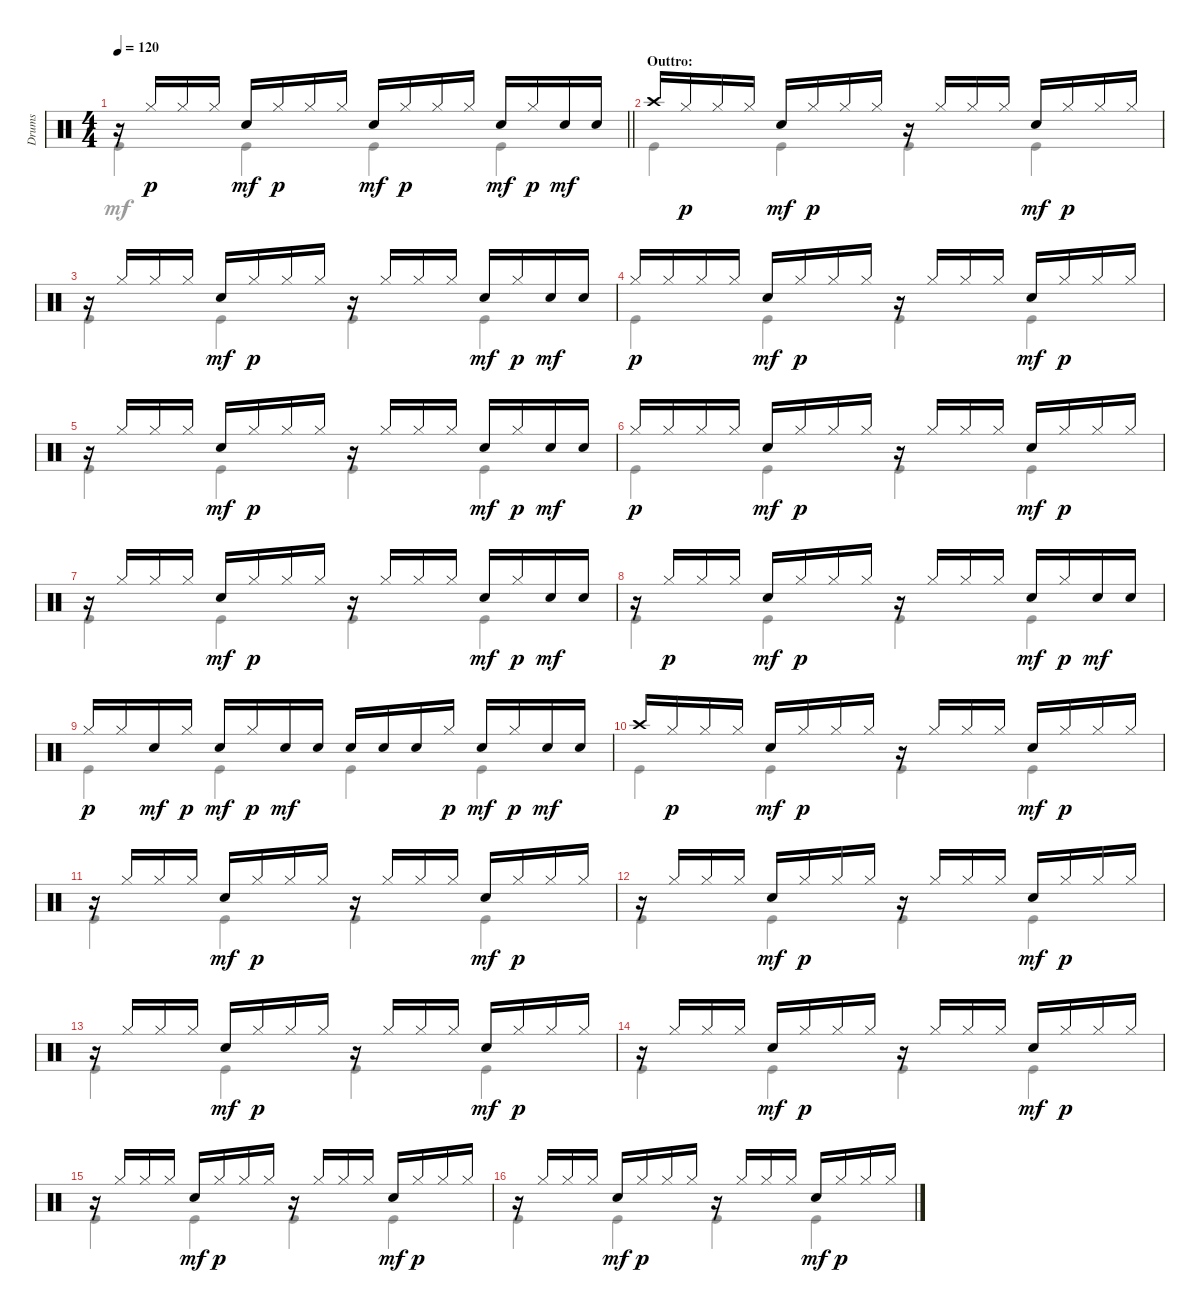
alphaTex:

\track ("Drums" "Drums") {instrument percussion}
\staff {score}
\articulation defaults
\voice
\ts (4 4)
\tempo 120
\clef neutral
\barLineRight lightlight
\ks c
r.16{dy p} "Hi-Hat (closed)".16 "Hi-Hat (closed)".16 "Hi-Hat (closed)".16 "Snare (hit) 2".16{dy mf} "Hi-Hat (closed)".16{dy p} "Hi-Hat (closed)".16 "Hi-Hat (closed)".16 "Snare (hit) 2".16{dy mf} "Hi-Hat (closed)".16{dy p} "Hi-Hat (closed)".16 "Hi-Hat (closed)".16 "Snare (hit) 2".16{dy mf} "Hi-Hat (closed)".16{dy p} "Snare (hit) 2".16{dy mf} "Snare (hit) 2".16 |
\section ("" "Outtro:")
"Crash high (hit)".16 "Hi-Hat (closed)".16{dy p} "Hi-Hat (closed)".16 "Hi-Hat (closed)".16 "Snare (hit) 2".16{dy mf} "Hi-Hat (closed)".16{dy p} "Hi-Hat (closed)".16 "Hi-Hat (closed)".16 r.16 "Hi-Hat (closed)".16 "Hi-Hat (closed)".16 "Hi-Hat (closed)".16 "Snare (hit) 2".16{dy mf} "Hi-Hat (closed)".16{dy p} "Hi-Hat (closed)".16 "Hi-Hat (closed)".16 |
r.16 "Hi-Hat (closed)".16 "Hi-Hat (closed)".16 "Hi-Hat (closed)".16 "Snare (hit) 2".16{dy mf} "Hi-Hat (closed)".16{dy p} "Hi-Hat (closed)".16 "Hi-Hat (closed)".16 r.16 "Hi-Hat (closed)".16 "Hi-Hat (closed)".16 "Hi-Hat (closed)".16 "Snare (hit) 2".16{dy mf} "Hi-Hat (closed)".16{dy p} "Snare (hit) 2".16{dy mf} "Snare (hit) 2".16 |
"Hi-Hat (closed)".16{dy p} "Hi-Hat (closed)".16 "Hi-Hat (closed)".16 "Hi-Hat (closed)".16 "Snare (hit) 2".16{dy mf} "Hi-Hat (closed)".16{dy p} "Hi-Hat (closed)".16 "Hi-Hat (closed)".16 r.16 "Hi-Hat (closed)".16 "Hi-Hat (closed)".16 "Hi-Hat (closed)".16 "Snare (hit) 2".16{dy mf} "Hi-Hat (closed)".16{dy p} "Hi-Hat (closed)".16 "Hi-Hat (closed)".16 |
r.16 "Hi-Hat (closed)".16 "Hi-Hat (closed)".16 "Hi-Hat (closed)".16 "Snare (hit) 2".16{dy mf} "Hi-Hat (closed)".16{dy p} "Hi-Hat (closed)".16 "Hi-Hat (closed)".16 r.16 "Hi-Hat (closed)".16 "Hi-Hat (closed)".16 "Hi-Hat (closed)".16 "Snare (hit) 2".16{dy mf} "Hi-Hat (closed)".16{dy p} "Snare (hit) 2".16{dy mf} "Snare (hit) 2".16 |
"Hi-Hat (closed)".16{dy p} "Hi-Hat (closed)".16 "Hi-Hat (closed)".16 "Hi-Hat (closed)".16 "Snare (hit) 2".16{dy mf} "Hi-Hat (closed)".16{dy p} "Hi-Hat (closed)".16 "Hi-Hat (closed)".16 r.16 "Hi-Hat (closed)".16 "Hi-Hat (closed)".16 "Hi-Hat (closed)".16 "Snare (hit) 2".16{dy mf} "Hi-Hat (closed)".16{dy p} "Hi-Hat (closed)".16 "Hi-Hat (closed)".16 |
r.16 "Hi-Hat (closed)".16 "Hi-Hat (closed)".16 "Hi-Hat (closed)".16 "Snare (hit) 2".16{dy mf} "Hi-Hat (closed)".16{dy p} "Hi-Hat (closed)".16 "Hi-Hat (closed)".16 r.16 "Hi-Hat (closed)".16 "Hi-Hat (closed)".16 "Hi-Hat (closed)".16 "Snare (hit) 2".16{dy mf} "Hi-Hat (closed)".16{dy p} "Snare (hit) 2".16{dy mf} "Snare (hit) 2".16 |
r.16 "Hi-Hat (closed)".16{dy p} "Hi-Hat (closed)".16 "Hi-Hat (closed)".16 "Snare (hit) 2".16{dy mf} "Hi-Hat (closed)".16{dy p} "Hi-Hat (closed)".16 "Hi-Hat (closed)".16 r.16 "Hi-Hat (closed)".16 "Hi-Hat (closed)".16 "Hi-Hat (closed)".16 "Snare (hit) 2".16{dy mf} "Hi-Hat (closed)".16{dy p} "Snare (hit) 2".16{dy mf} "Snare (hit) 2".16 |
"Hi-Hat (closed)".16{dy p} "Hi-Hat (closed)".16 "Snare (hit) 2".16{dy mf} "Hi-Hat (closed)".16{dy p} "Snare (hit) 2".16{dy mf} "Hi-Hat (closed)".16{dy p} "Snare (hit) 2".16{dy mf} "Snare (hit) 2".16 "Snare (hit) 2".16 "Snare (hit) 2".16 "Snare (hit) 2".16 "Hi-Hat (closed)".16{dy p} "Snare (hit) 2".16{dy mf} "Hi-Hat (closed)".16{dy p} "Snare (hit) 2".16{dy mf} "Snare (hit) 2".16 |
"Crash high (hit)".16 "Hi-Hat (closed)".16{dy p} "Hi-Hat (closed)".16 "Hi-Hat (closed)".16 "Snare (hit) 2".16{dy mf} "Hi-Hat (closed)".16{dy p} "Hi-Hat (closed)".16 "Hi-Hat (closed)".16 r.16 "Hi-Hat (closed)".16 "Hi-Hat (closed)".16 "Hi-Hat (closed)".16 "Snare (hit) 2".16{dy mf} "Hi-Hat (closed)".16{dy p} "Hi-Hat (closed)".16 "Hi-Hat (closed)".16 |
r.16 "Hi-Hat (closed)".16 "Hi-Hat (closed)".16 "Hi-Hat (closed)".16 "Snare (hit) 2".16{dy mf} "Hi-Hat (closed)".16{dy p} "Hi-Hat (closed)".16 "Hi-Hat (closed)".16 r.16 "Hi-Hat (closed)".16 "Hi-Hat (closed)".16 "Hi-Hat (closed)".16 "Snare (hit) 2".16{dy mf} "Hi-Hat (closed)".16{dy p} "Hi-Hat (closed)".16 "Hi-Hat (closed)".16 |
r.16 "Hi-Hat (closed)".16 "Hi-Hat (closed)".16 "Hi-Hat (closed)".16 "Snare (hit) 2".16{dy mf} "Hi-Hat (closed)".16{dy p} "Hi-Hat (closed)".16 "Hi-Hat (closed)".16 r.16 "Hi-Hat (closed)".16 "Hi-Hat (closed)".16 "Hi-Hat (closed)".16 "Snare (hit) 2".16{dy mf} "Hi-Hat (closed)".16{dy p} "Hi-Hat (closed)".16 "Hi-Hat (closed)".16 |
r.16 "Hi-Hat (closed)".16 "Hi-Hat (closed)".16 "Hi-Hat (closed)".16 "Snare (hit) 2".16{dy mf} "Hi-Hat (closed)".16{dy p} "Hi-Hat (closed)".16 "Hi-Hat (closed)".16 r.16 "Hi-Hat (closed)".16 "Hi-Hat (closed)".16 "Hi-Hat (closed)".16 "Snare (hit) 2".16{dy mf} "Hi-Hat (closed)".16{dy p} "Hi-Hat (closed)".16 "Hi-Hat (closed)".16 |
r.16 "Hi-Hat (closed)".16 "Hi-Hat (closed)".16 "Hi-Hat (closed)".16 "Snare (hit) 2".16{dy mf} "Hi-Hat (closed)".16{dy p} "Hi-Hat (closed)".16 "Hi-Hat (closed)".16 r.16 "Hi-Hat (closed)".16 "Hi-Hat (closed)".16 "Hi-Hat (closed)".16 "Snare (hit) 2".16{dy mf} "Hi-Hat (closed)".16{dy p} "Hi-Hat (closed)".16 "Hi-Hat (closed)".16 |
r.16 "Hi-Hat (closed)".16 "Hi-Hat (closed)".16 "Hi-Hat (closed)".16 "Snare (hit) 2".16{dy mf} "Hi-Hat (closed)".16{dy p} "Hi-Hat (closed)".16 "Hi-Hat (closed)".16 r.16 "Hi-Hat (closed)".16 "Hi-Hat (closed)".16 "Hi-Hat (closed)".16 "Snare (hit) 2".16{dy mf} "Hi-Hat (closed)".16{dy p} "Hi-Hat (closed)".16 "Hi-Hat (closed)".16 |
r.16 "Hi-Hat (closed)".16 "Hi-Hat (closed)".16 "Hi-Hat (closed)".16 "Snare (hit) 2".16{dy mf} "Hi-Hat (closed)".16{dy p} "Hi-Hat (closed)".16 "Hi-Hat (closed)".16 r.16 "Hi-Hat (closed)".16 "Hi-Hat (closed)".16 "Hi-Hat (closed)".16 "Snare (hit) 2".16{dy mf} "Hi-Hat (closed)".16{dy p} "Hi-Hat (closed)".16 "Hi-Hat (closed)".16
\voice
\clef neutral
\ottava regular
\simile none
\barLineRight lightlight
\ks c "Kick (hit)".4{dy mf} "Kick (hit)".4 "Kick (hit)".4 "Kick (hit)".4
|
"Kick (hit)".4 "Kick (hit)".4 "Kick (hit)".4 "Kick (hit)".4 |
"Kick (hit)".4 "Kick (hit)".4 "Kick (hit)".4 "Kick (hit)".4 |
"Kick (hit)".4 "Kick (hit)".4 "Kick (hit)".4 "Kick (hit)".4 |
"Kick (hit)".4 "Kick (hit)".4 "Kick (hit)".4 "Kick (hit)".4 |
"Kick (hit)".4 "Kick (hit)".4 "Kick (hit)".4 "Kick (hit)".4 |
"Kick (hit)".4 "Kick (hit)".4 "Kick (hit)".4 "Kick (hit)".4 |
"Kick (hit)".4 "Kick (hit)".4 "Kick (hit)".4 "Kick (hit)".4 |
"Kick (hit)".4 "Kick (hit)".4 "Kick (hit)".4 "Kick (hit)".4 |
"Kick (hit)".4 "Kick (hit)".4 "Kick (hit)".4 "Kick (hit)".4 |
"Kick (hit)".4 "Kick (hit)".4 "Kick (hit)".4 "Kick (hit)".4 |
"Kick (hit)".4 "Kick (hit)".4 "Kick (hit)".4 "Kick (hit)".4 |
"Kick (hit)".4 "Kick (hit)".4 "Kick (hit)".4 "Kick (hit)".4 |
"Kick (hit)".4 "Kick (hit)".4 "Kick (hit)".4 "Kick (hit)".4 |
"Kick (hit)".4 "Kick (hit)".4 "Kick (hit)".4 "Kick (hit)".4 |
"Kick (hit)".4 "Kick (hit)".4 "Kick (hit)".4 "Kick (hit)".4
